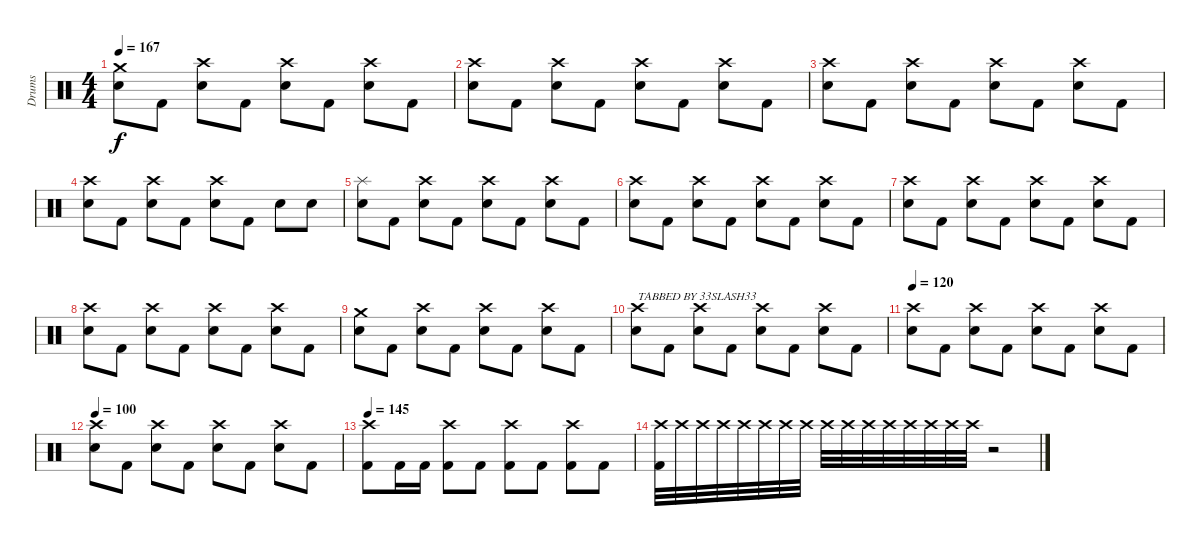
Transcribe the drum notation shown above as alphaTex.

\track ("Drums" "Drums") {instrument percussion}
\staff {score}
\articulation defaults
\ts (4 4)
\tempo 167
\clef neutral
\ks c
("Crash medium (hit)" "Snare (hit) 2").8{dy f} "Kick (hit) 2".8 ("Crash high (hit)" "Snare (hit) 2").8 "Kick (hit) 2".8 ("Crash high (hit)" "Snare (hit) 2").8 "Kick (hit) 2".8 ("Crash high (hit)" "Snare (hit) 2").8 "Kick (hit) 2".8 |
("Crash high (hit)" "Snare (hit) 2").8 "Kick (hit) 2".8 ("Crash high (hit)" "Snare (hit) 2").8 "Kick (hit) 2".8 ("Crash high (hit)" "Snare (hit) 2").8 "Kick (hit) 2".8 ("Crash high (hit)" "Snare (hit) 2").8 "Kick (hit) 2".8 |
("Crash high (hit)" "Snare (hit) 2").8 "Kick (hit) 2".8 ("Crash high (hit)" "Snare (hit) 2").8 "Kick (hit) 2".8 ("Crash high (hit)" "Snare (hit) 2").8 "Kick (hit) 2".8 ("Crash high (hit)" "Snare (hit) 2").8 "Kick (hit) 2".8 |
("Crash high (hit)" "Snare (hit) 2").8 "Kick (hit) 2".8 ("Crash high (hit)" "Snare (hit) 2").8 "Kick (hit) 2".8 ("Crash high (hit)" "Snare (hit) 2").8 "Kick (hit) 2".8 "Snare (hit) 2".8 "Snare (hit) 2".8 |
("Splash (hit)" "Snare (hit) 2").8 "Kick (hit) 2".8 ("Crash high (hit)" "Snare (hit) 2").8 "Kick (hit) 2".8 ("Crash high (hit)" "Snare (hit) 2").8 "Kick (hit) 2".8 ("Crash high (hit)" "Snare (hit) 2").8 "Kick (hit) 2".8 |
("Crash high (hit)" "Snare (hit) 2").8 "Kick (hit) 2".8 ("Crash high (hit)" "Snare (hit) 2").8 "Kick (hit) 2".8 ("Crash high (hit)" "Snare (hit) 2").8 "Kick (hit) 2".8 ("Crash high (hit)" "Snare (hit) 2").8 "Kick (hit) 2".8 |
("Crash high (hit)" "Snare (hit) 2").8 "Kick (hit) 2".8 ("Crash high (hit)" "Snare (hit) 2").8 "Kick (hit) 2".8 ("Crash high (hit)" "Snare (hit) 2").8 "Kick (hit) 2".8 ("Crash high (hit)" "Snare (hit) 2").8 "Kick (hit) 2".8 |
("Crash high (hit)" "Snare (hit) 2").8 "Kick (hit) 2".8 ("Crash high (hit)" "Snare (hit) 2").8 "Kick (hit) 2".8 ("Crash high (hit)" "Snare (hit) 2").8 "Kick (hit) 2".8 ("Crash high (hit)" "Snare (hit) 2").8 "Kick (hit) 2".8 |
("Crash medium (hit)" "Snare (hit) 2").8 "Kick (hit) 2".8 ("Crash high (hit)" "Snare (hit) 2").8 "Kick (hit) 2".8 ("Crash high (hit)" "Snare (hit) 2").8 "Kick (hit) 2".8 ("Crash high (hit)" "Snare (hit) 2").8 "Kick (hit) 2".8 |
("Crash high (hit)" "Snare (hit) 2").8{txt "TABBED BY 33SLASH33"} "Kick (hit) 2".8 ("Crash high (hit)" "Snare (hit) 2").8 "Kick (hit) 2".8 ("Crash high (hit)" "Snare (hit) 2").8 "Kick (hit) 2".8 ("Crash high (hit)" "Snare (hit) 2").8 "Kick (hit) 2".8 |
\tempo 120
("Crash high (hit)" "Snare (hit) 2").8 "Kick (hit) 2".8 ("Crash high (hit)" "Snare (hit) 2").8 "Kick (hit) 2".8 ("Crash high (hit)" "Snare (hit) 2").8 "Kick (hit) 2".8 ("Crash high (hit)" "Snare (hit) 2").8 "Kick (hit) 2".8 |
\tempo 100
("Crash high (hit)" "Snare (hit) 2").8 "Kick (hit) 2".8 ("Crash high (hit)" "Snare (hit) 2").8 "Kick (hit) 2".8 ("Crash high (hit)" "Snare (hit) 2").8 "Kick (hit) 2".8 ("Crash high (hit)" "Snare (hit) 2").8 "Kick (hit) 2".8 |
\tempo 145
("Crash high (hit)" "Kick (hit) 2").8 "Kick (hit) 2".16 "Kick (hit) 2".16 ("Crash high (hit)" "Kick (hit) 2").8 "Kick (hit) 2".8 ("Crash high (hit)" "Kick (hit) 2").8 "Kick (hit) 2".8 ("Crash high (hit)" "Kick (hit) 2").8 "Kick (hit) 2".8 |
("Crash high (hit)" "Kick (hit) 2").32 "Crash high (hit)".32 "Crash high (hit)".32 "Crash high (hit)".32 "Crash high (hit)".32 "Crash high (hit)".32 "Crash high (hit)".32 "Crash high (hit)".32 "Crash high (hit)".32 "Crash high (hit)".32 "Crash high (hit)".32 "Crash high (hit)".32 "Crash high (hit)".32 "Crash high (hit)".32 "Crash high (hit)".32 "Crash high (hit)".32 r.2
